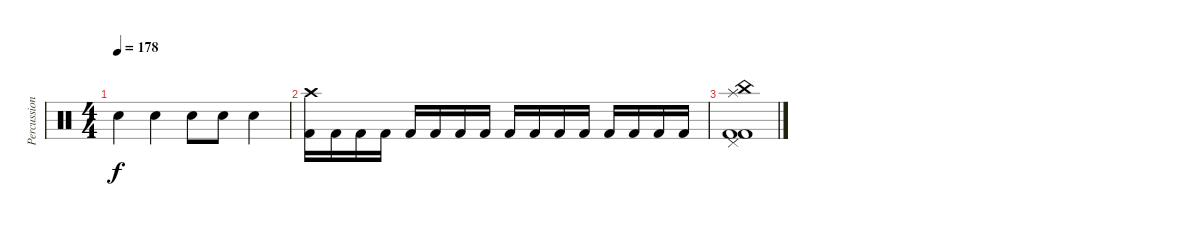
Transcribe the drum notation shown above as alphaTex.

\track ("Percussion" "Percussion") {instrument percussion}
\staff {score}
\articulation defaults
\ts (4 4)
\tempo 178
\clef neutral
\ks c "Electric Snare (hit)".4{dy f} "Electric Snare (hit)".4 "Electric Snare (hit)".8 "Electric Snare (hit)".8 "Electric Snare (hit)".4
|
("Crash high (hit)" "Kick (hit) 2").16 "Kick (hit) 2".16 "Kick (hit) 2".16 "Kick (hit) 2".16 "Kick (hit) 2".16 "Kick (hit) 2".16 "Kick (hit) 2".16 "Kick (hit) 2".16 "Kick (hit) 2".16 "Kick (hit) 2".16 "Kick (hit) 2".16 "Kick (hit) 2".16 "Kick (hit) 2".16 "Kick (hit) 2".16 "Kick (hit) 2".16 "Kick (hit) 2".16 |
("China (hit)" "Splash (hit)" "Pedal Hi-Hat (hit)" "Kick (hit) 2" "Kick (hit) 2").1
